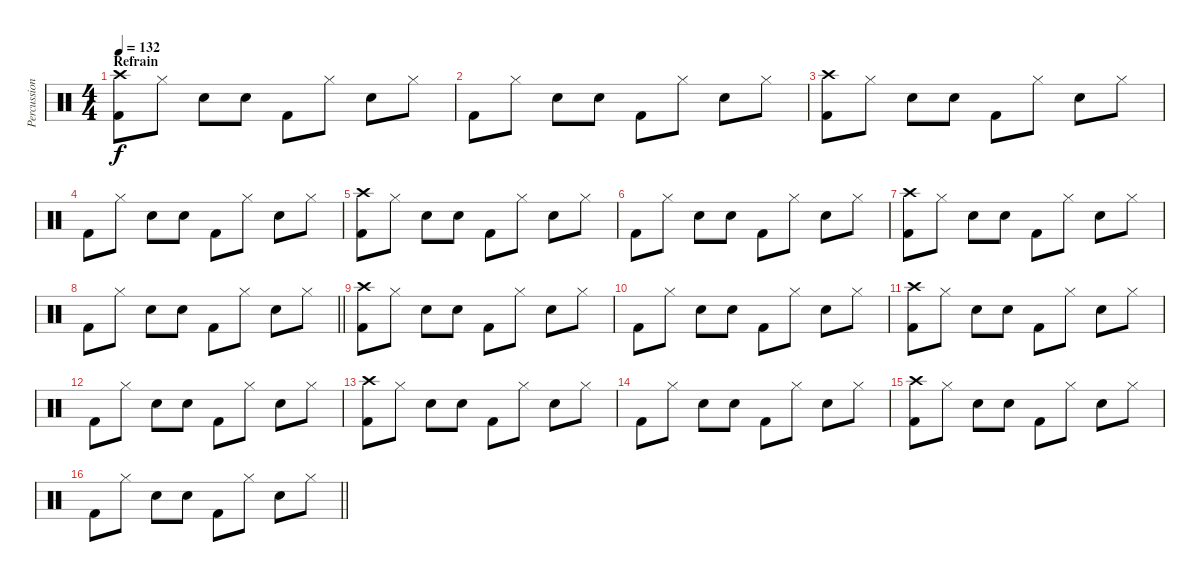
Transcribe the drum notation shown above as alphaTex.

\track ("Percussions" "Percussion") {instrument percussion}
\staff {score}
\articulation defaults
\ts (4 4)
\section ("" "Refrain")
\tempo 132
\clef neutral
\ks c
("Kick (hit) 2" "Crash high (hit)").8{dy f} "Hi-Hat (closed)".8 "Snare (hit) 2".8 "Snare (hit) 2".8 "Kick (hit) 2".8 "Hi-Hat (closed)".8 "Snare (hit) 2".8 "Hi-Hat (closed)".8 |
"Kick (hit) 2".8 "Hi-Hat (closed)".8 "Snare (hit) 2".8 "Snare (hit) 2".8 "Kick (hit) 2".8 "Hi-Hat (closed)".8 "Snare (hit) 2".8 "Hi-Hat (closed)".8 |
("Kick (hit) 2" "Crash high (hit)").8 "Hi-Hat (closed)".8 "Snare (hit) 2".8 "Snare (hit) 2".8 "Kick (hit) 2".8 "Hi-Hat (closed)".8 "Snare (hit) 2".8 "Hi-Hat (closed)".8 |
"Kick (hit) 2".8 "Hi-Hat (closed)".8 "Snare (hit) 2".8 "Snare (hit) 2".8 "Kick (hit) 2".8 "Hi-Hat (closed)".8 "Snare (hit) 2".8 "Hi-Hat (closed)".8 |
("Kick (hit) 2" "Crash high (hit)").8 "Hi-Hat (closed)".8 "Snare (hit) 2".8 "Snare (hit) 2".8 "Kick (hit) 2".8 "Hi-Hat (closed)".8 "Snare (hit) 2".8 "Hi-Hat (closed)".8 |
"Kick (hit) 2".8 "Hi-Hat (closed)".8 "Snare (hit) 2".8 "Snare (hit) 2".8 "Kick (hit) 2".8 "Hi-Hat (closed)".8 "Snare (hit) 2".8 "Hi-Hat (closed)".8 |
("Kick (hit) 2" "Crash high (hit)").8 "Hi-Hat (closed)".8 "Snare (hit) 2".8 "Snare (hit) 2".8 "Kick (hit) 2".8 "Hi-Hat (closed)".8 "Snare (hit) 2".8 "Hi-Hat (closed)".8 |
\barLineRight lightlight "Kick (hit) 2".8 "Hi-Hat (closed)".8 "Snare (hit) 2".8 "Snare (hit) 2".8 "Kick (hit) 2".8 "Hi-Hat (closed)".8 "Snare (hit) 2".8 "Hi-Hat (closed)".8
|
("Kick (hit) 2" "Crash high (hit)").8 "Hi-Hat (closed)".8 "Snare (hit) 2".8 "Snare (hit) 2".8 "Kick (hit) 2".8 "Hi-Hat (closed)".8 "Snare (hit) 2".8 "Hi-Hat (closed)".8 |
"Kick (hit) 2".8 "Hi-Hat (closed)".8 "Snare (hit) 2".8 "Snare (hit) 2".8 "Kick (hit) 2".8 "Hi-Hat (closed)".8 "Snare (hit) 2".8 "Hi-Hat (closed)".8 |
("Kick (hit) 2" "Crash high (hit)").8 "Hi-Hat (closed)".8 "Snare (hit) 2".8 "Snare (hit) 2".8 "Kick (hit) 2".8 "Hi-Hat (closed)".8 "Snare (hit) 2".8 "Hi-Hat (closed)".8 |
"Kick (hit) 2".8 "Hi-Hat (closed)".8 "Snare (hit) 2".8 "Snare (hit) 2".8 "Kick (hit) 2".8 "Hi-Hat (closed)".8 "Snare (hit) 2".8 "Hi-Hat (closed)".8 |
("Kick (hit) 2" "Crash high (hit)").8 "Hi-Hat (closed)".8 "Snare (hit) 2".8 "Snare (hit) 2".8 "Kick (hit) 2".8 "Hi-Hat (closed)".8 "Snare (hit) 2".8 "Hi-Hat (closed)".8 |
"Kick (hit) 2".8 "Hi-Hat (closed)".8 "Snare (hit) 2".8 "Snare (hit) 2".8 "Kick (hit) 2".8 "Hi-Hat (closed)".8 "Snare (hit) 2".8 "Hi-Hat (closed)".8 |
("Kick (hit) 2" "Crash high (hit)").8 "Hi-Hat (closed)".8 "Snare (hit) 2".8 "Snare (hit) 2".8 "Kick (hit) 2".8 "Hi-Hat (closed)".8 "Snare (hit) 2".8 "Hi-Hat (closed)".8 |
\barLineRight lightlight "Kick (hit) 2".8 "Hi-Hat (closed)".8 "Snare (hit) 2".8 "Snare (hit) 2".8 "Kick (hit) 2".8 "Hi-Hat (closed)".8 "Snare (hit) 2".8 "Hi-Hat (closed)".8
